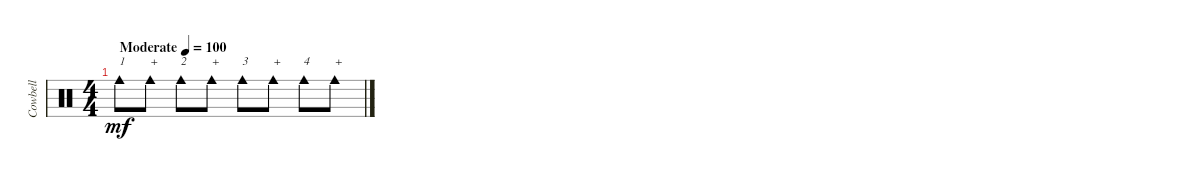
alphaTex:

\track ("Cowbell" "Cowbell") {instrument percussion}
\staff {score}
\articulation defaults
\ts (4 4)
\tempo (100 "Moderate")
\clef neutral
\ks c "Cowbell medium (hit)".8{txt "1" dy mf} "Cowbell medium (hit)".8{txt "+"} "Cowbell medium (hit)".8{txt "2"} "Cowbell medium (hit)".8{txt "+"} "Cowbell medium (hit)".8{txt "3"} "Cowbell medium (hit)".8{txt "+"} "Cowbell medium (hit)".8{txt "4"} "Cowbell medium (hit)".8{txt "+"}
